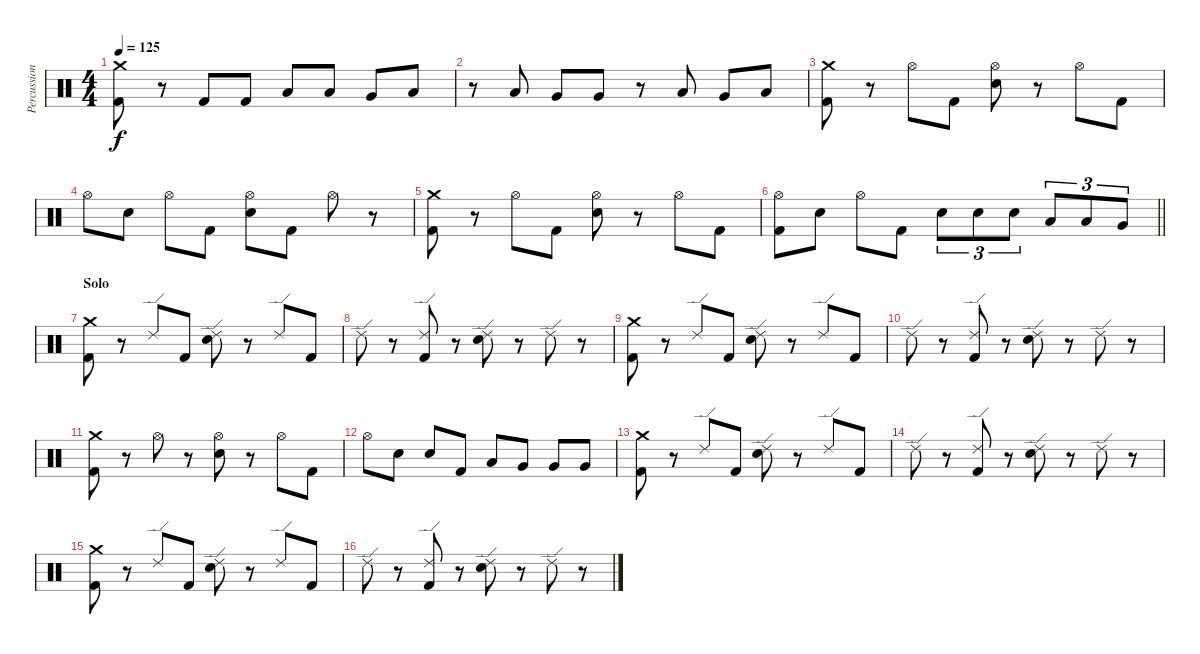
\track ("Percussion" "Percussion") {instrument percussion}
\staff {score}
\articulation defaults
\ts (4 4)
\tempo 125
\clef neutral
\ks c
("Crash medium (hit)" "Kick (hit) 2").8{dy f} r.8 "Kick (hit) 2".8 "Kick (hit) 2".8 "Low Tom (hit)".8 "Low Tom (hit)".8 "Very Low Tom (hit)".8 "Low Tom (hit)".8 |
r.8 "Low Tom (hit)".8 "Very Low Tom (hit)".8 "Very Low Tom (hit)".8 r.8 "Low Tom (hit)".8 "Very Low Tom (hit)".8 "Low Tom (hit)".8 |
("Crash medium (hit)" "Kick (hit) 2").8 r.8 "Hi-Hat (open)".8 "Kick (hit) 2".8 ("Hi-Hat (open)" "Electric Snare (hit)").8 r.8 "Hi-Hat (open)".8 "Kick (hit) 2".8 |
"Hi-Hat (open)".8 "Electric Snare (hit)".8 "Hi-Hat (open)".8 "Kick (hit) 2".8 ("Hi-Hat (open)" "Electric Snare (hit)").8 "Kick (hit) 2".8 "Hi-Hat (open)".8 r.8 |
("Crash medium (hit)" "Kick (hit) 2").8 r.8 "Hi-Hat (open)".8 "Kick (hit) 2".8 ("Hi-Hat (open)" "Electric Snare (hit)").8 r.8 "Hi-Hat (open)".8 "Kick (hit) 2".8 |
\barLineRight lightlight
("Hi-Hat (open)" "Kick (hit) 2").8 "Electric Snare (hit)".8 "Hi-Hat (open)".8 "Kick (hit) 2".8 "Electric Snare (hit)".8{tu (3 2)} "Electric Snare (hit)".8{tu (3 2)} "Electric Snare (hit)".8{tu (3 2)} "Low Tom (hit)".8{tu (3 2)} "Low Tom (hit)".8{tu (3 2)} "Very Low Tom (hit)".8{tu (3 2)} |
\section ("" "Solo")
("Crash medium (hit)" "Kick (hit) 2").8 r.8 "Ride (edge) 2".8 "Kick (hit) 2".8 ("Ride (edge) 2" "Electric Snare (hit)").8 r.8 "Ride (edge) 2".8 "Kick (hit) 2".8 |
"Ride (edge) 2".8 r.8 ("Ride (edge) 2" "Kick (hit) 2").8 r.8 ("Ride (edge) 2" "Electric Snare (hit)").8 r.8 "Ride (edge) 2".8 r.8 |
("Crash medium (hit)" "Kick (hit) 2").8 r.8 "Ride (edge) 2".8 "Kick (hit) 2".8 ("Ride (edge) 2" "Electric Snare (hit)").8 r.8 "Ride (edge) 2".8 "Kick (hit) 2".8 |
"Ride (edge) 2".8 r.8 ("Ride (edge) 2" "Kick (hit) 2").8 r.8 ("Ride (edge) 2" "Electric Snare (hit)").8 r.8 "Ride (edge) 2".8 r.8 |
("Crash medium (hit)" "Kick (hit) 2").8 r.8 "Hi-Hat (open)".8 r.8 ("Hi-Hat (open)" "Electric Snare (hit)").8 r.8 "Hi-Hat (open)".8 "Kick (hit) 2".8 |
"Hi-Hat (open)".8 "Electric Snare (hit)".8 "Electric Snare (hit)".8 "Kick (hit) 2".8 "Low Tom (hit)".8 "Very Low Tom (hit)".8 "Very Low Tom (hit)".8 "Very Low Tom (hit)".8 |
("Crash medium (hit)" "Kick (hit) 2").8 r.8 "Ride (edge) 2".8 "Kick (hit) 2".8 ("Ride (edge) 2" "Electric Snare (hit)").8 r.8 "Ride (edge) 2".8 "Kick (hit) 2".8 |
"Ride (edge) 2".8 r.8 ("Ride (edge) 2" "Kick (hit) 2").8 r.8 ("Ride (edge) 2" "Electric Snare (hit)").8 r.8 "Ride (edge) 2".8 r.8 |
("Crash medium (hit)" "Kick (hit) 2").8 r.8 "Ride (edge) 2".8 "Kick (hit) 2".8 ("Ride (edge) 2" "Electric Snare (hit)").8 r.8 "Ride (edge) 2".8 "Kick (hit) 2".8 |
"Ride (edge) 2".8 r.8 ("Ride (edge) 2" "Kick (hit) 2").8 r.8 ("Ride (edge) 2" "Electric Snare (hit)").8 r.8 "Ride (edge) 2".8 r.8
